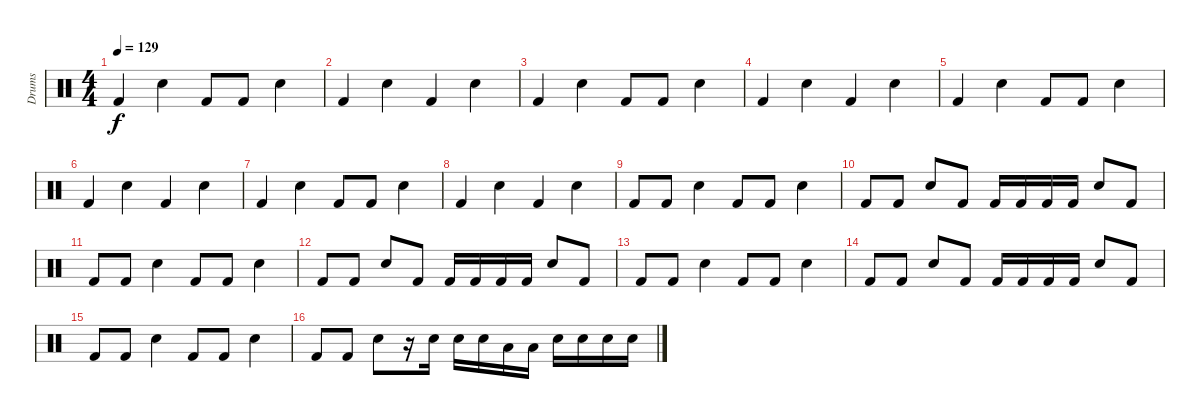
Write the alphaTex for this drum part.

\track ("Drums" "Drums") {instrument percussion}
\staff {score}
\articulation defaults
\ts (4 4)
\tempo 129
\clef neutral
\ks c "Kick (hit) 2".4{dy f} "Snare (hit) 2".4 "Kick (hit) 2".8 "Kick (hit) 2".8 "Snare (hit) 2".4
|
"Kick (hit) 2".4 "Snare (hit) 2".4 "Kick (hit) 2".4 "Snare (hit) 2".4 |
"Kick (hit) 2".4 "Snare (hit) 2".4 "Kick (hit) 2".8 "Kick (hit) 2".8 "Snare (hit) 2".4 |
"Kick (hit) 2".4 "Snare (hit) 2".4 "Kick (hit) 2".4 "Snare (hit) 2".4 |
"Kick (hit) 2".4 "Snare (hit) 2".4 "Kick (hit) 2".8 "Kick (hit) 2".8 "Snare (hit) 2".4 |
"Kick (hit) 2".4 "Snare (hit) 2".4 "Kick (hit) 2".4 "Snare (hit) 2".4 |
"Kick (hit) 2".4 "Snare (hit) 2".4 "Kick (hit) 2".8 "Kick (hit) 2".8 "Snare (hit) 2".4 |
"Kick (hit) 2".4 "Snare (hit) 2".4 "Kick (hit) 2".4 "Snare (hit) 2".4 |
"Kick (hit) 2".8 "Kick (hit) 2".8 "Snare (hit) 2".4 "Kick (hit) 2".8 "Kick (hit) 2".8 "Snare (hit) 2".4 |
"Kick (hit) 2".8 "Kick (hit) 2".8 "Snare (hit) 2".8 "Kick (hit) 2".8 "Kick (hit) 2".16 "Kick (hit) 2".16 "Kick (hit) 2".16 "Kick (hit) 2".16 "Snare (hit) 2".8 "Kick (hit) 2".8 |
"Kick (hit) 2".8 "Kick (hit) 2".8 "Snare (hit) 2".4 "Kick (hit) 2".8 "Kick (hit) 2".8 "Snare (hit) 2".4 |
"Kick (hit) 2".8 "Kick (hit) 2".8 "Snare (hit) 2".8 "Kick (hit) 2".8 "Kick (hit) 2".16 "Kick (hit) 2".16 "Kick (hit) 2".16 "Kick (hit) 2".16 "Snare (hit) 2".8 "Kick (hit) 2".8 |
"Kick (hit) 2".8 "Kick (hit) 2".8 "Snare (hit) 2".4 "Kick (hit) 2".8 "Kick (hit) 2".8 "Snare (hit) 2".4 |
"Kick (hit) 2".8 "Kick (hit) 2".8 "Snare (hit) 2".8 "Kick (hit) 2".8 "Kick (hit) 2".16 "Kick (hit) 2".16 "Kick (hit) 2".16 "Kick (hit) 2".16 "Snare (hit) 2".8 "Kick (hit) 2".8 |
"Kick (hit) 2".8 "Kick (hit) 2".8 "Snare (hit) 2".4 "Kick (hit) 2".8 "Kick (hit) 2".8 "Snare (hit) 2".4 |
"Kick (hit) 2".8 "Kick (hit) 2".8 "Snare (hit) 2".8 r.16 "Snare (hit) 2".16 "Snare (hit) 2".16 "Snare (hit) 2".16 "Low Tom (hit)".16 "Low Tom (hit)".16 "Snare (hit) 2".16 "Snare (hit) 2".16 "Snare (hit) 2".16 "Snare (hit) 2".16
